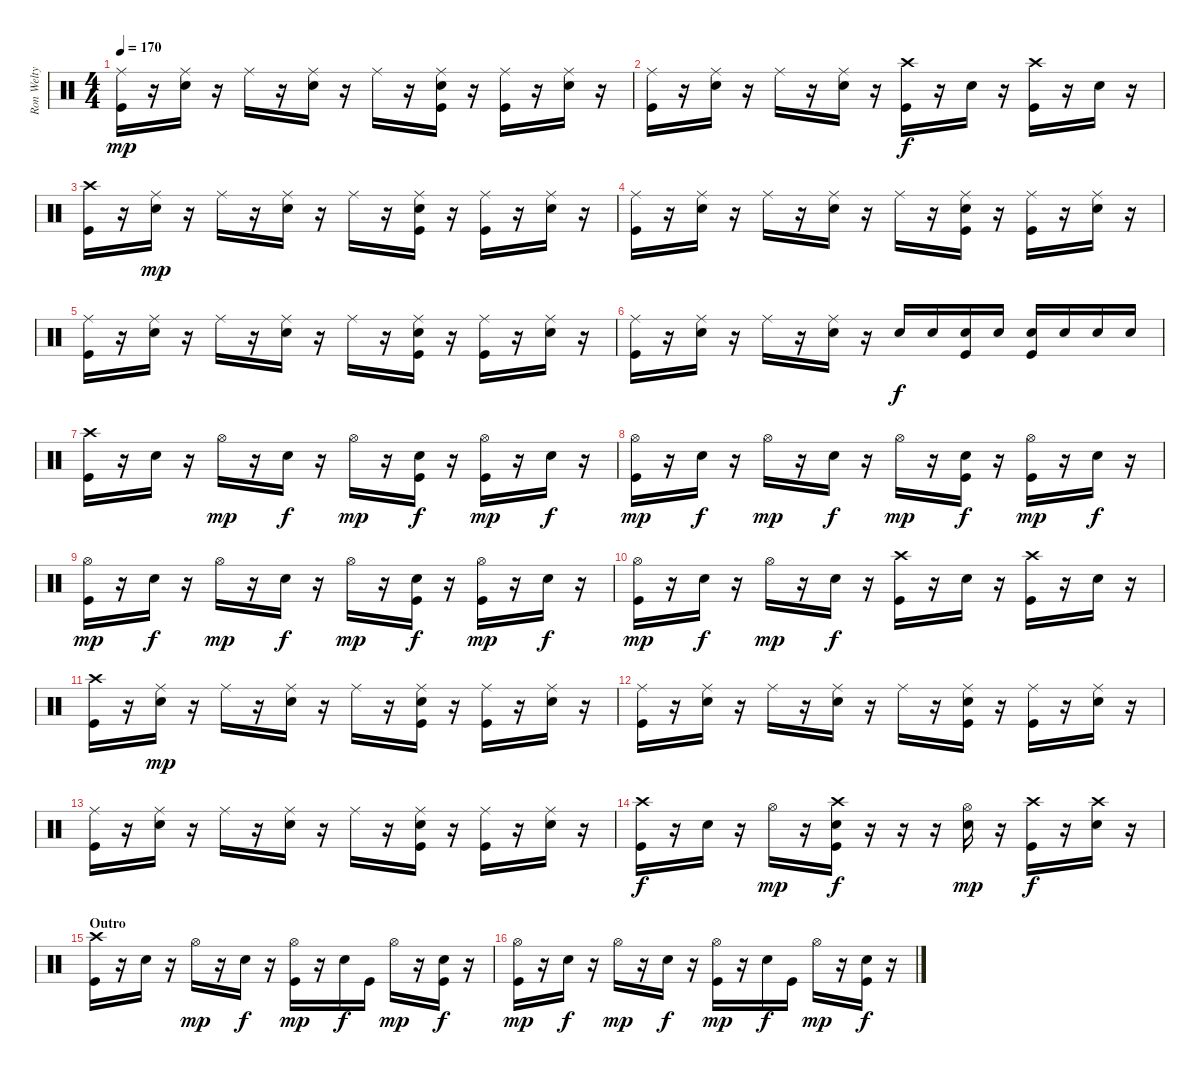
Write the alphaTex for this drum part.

\track ("Ron Welty" "Ron Welty") {instrument percussion}
\staff {score}
\articulation defaults
\ts (4 4)
\tempo 170
\clef neutral
\ks c
("Ride (middle)" "Kick (hit)").16{dy mp} r.16 ("Ride (middle)" "Snare (hit) 2").16 r.16 "Ride (middle)".16 r.16 ("Ride (middle)" "Snare (hit) 2").16 r.16 "Ride (middle)".16 r.16 ("Ride (middle)" "Snare (hit) 2" "Kick (hit)").16 r.16 ("Ride (middle)" "Kick (hit)").16 r.16 ("Ride (middle)" "Snare (hit) 2").16 r.16 |
("Ride (middle)" "Kick (hit)").16 r.16 ("Ride (middle)" "Snare (hit) 2").16 r.16 "Ride (middle)".16 r.16 ("Ride (middle)" "Snare (hit) 2").16 r.16 ("Crash high (hit)" "Kick (hit)").16{dy f} r.16 "Snare (hit) 2".16 r.16 ("Crash high (hit)" "Kick (hit)").16 r.16 "Snare (hit) 2".16 r.16 |
("Crash high (hit)" "Kick (hit)").16 r.16 ("Ride (middle)" "Snare (hit) 2").16{dy mp} r.16 "Ride (middle)".16 r.16 ("Ride (middle)" "Snare (hit) 2").16 r.16 "Ride (middle)".16 r.16 ("Ride (middle)" "Snare (hit) 2" "Kick (hit)").16 r.16 ("Ride (middle)" "Kick (hit)").16 r.16 ("Ride (middle)" "Snare (hit) 2").16 r.16 |
("Ride (middle)" "Kick (hit)").16 r.16 ("Ride (middle)" "Snare (hit) 2").16 r.16 "Ride (middle)".16 r.16 ("Ride (middle)" "Snare (hit) 2").16 r.16 "Ride (middle)".16 r.16 ("Ride (middle)" "Snare (hit) 2" "Kick (hit)").16 r.16 ("Ride (middle)" "Kick (hit)").16 r.16 ("Ride (middle)" "Snare (hit) 2").16 r.16 |
("Ride (middle)" "Kick (hit)").16 r.16 ("Ride (middle)" "Snare (hit) 2").16 r.16 "Ride (middle)".16 r.16 ("Ride (middle)" "Snare (hit) 2").16 r.16 "Ride (middle)".16 r.16 ("Ride (middle)" "Snare (hit) 2" "Kick (hit)").16 r.16 ("Ride (middle)" "Kick (hit)").16 r.16 ("Ride (middle)" "Snare (hit) 2").16 r.16 |
("Ride (middle)" "Kick (hit)").16 r.16 ("Ride (middle)" "Snare (hit) 2").16 r.16 "Ride (middle)".16 r.16 ("Ride (middle)" "Snare (hit) 2").16 r.16 "Snare (hit) 2".16{dy f} "Snare (hit) 2".16 ("Snare (hit) 2" "Kick (hit)").16 "Snare (hit) 2".16 ("Snare (hit) 2" "Kick (hit)").16 "Snare (hit) 2".16 "Snare (hit) 2".16 "Snare (hit) 2".16 |
("Crash high (hit)" "Kick (hit)").16 r.16 "Snare (hit) 2".16 r.16 "Hi-Hat (open)".16{dy mp} r.16 "Snare (hit) 2".16{dy f} r.16 "Hi-Hat (open)".16{dy mp} r.16 ("Snare (hit) 2" "Kick (hit)").16{dy f} r.16 ("Hi-Hat (open)" "Kick (hit)").16{dy mp} r.16 "Snare (hit) 2".16{dy f} r.16 |
("Hi-Hat (open)" "Kick (hit)").16{dy mp} r.16 "Snare (hit) 2".16{dy f} r.16 "Hi-Hat (open)".16{dy mp} r.16 "Snare (hit) 2".16{dy f} r.16 "Hi-Hat (open)".16{dy mp} r.16 ("Snare (hit) 2" "Kick (hit)").16{dy f} r.16 ("Hi-Hat (open)" "Kick (hit)").16{dy mp} r.16 "Snare (hit) 2".16{dy f} r.16 |
("Hi-Hat (open)" "Kick (hit)").16{dy mp} r.16 "Snare (hit) 2".16{dy f} r.16 "Hi-Hat (open)".16{dy mp} r.16 "Snare (hit) 2".16{dy f} r.16 "Hi-Hat (open)".16{dy mp} r.16 ("Snare (hit) 2" "Kick (hit)").16{dy f} r.16 ("Hi-Hat (open)" "Kick (hit)").16{dy mp} r.16 "Snare (hit) 2".16{dy f} r.16 |
("Hi-Hat (open)" "Kick (hit)").16{dy mp} r.16 "Snare (hit) 2".16{dy f} r.16 "Hi-Hat (open)".16{dy mp} r.16 "Snare (hit) 2".16{dy f} r.16 ("Crash high (hit)" "Kick (hit)").16 r.16 "Snare (hit) 2".16 r.16 ("Crash high (hit)" "Kick (hit)").16 r.16 "Snare (hit) 2".16 r.16 |
("Crash high (hit)" "Kick (hit)").16 r.16 ("Ride (middle)" "Snare (hit) 2").16{dy mp} r.16 "Ride (middle)".16 r.16 ("Ride (middle)" "Snare (hit) 2").16 r.16 "Ride (middle)".16 r.16 ("Ride (middle)" "Snare (hit) 2" "Kick (hit)").16 r.16 ("Ride (middle)" "Kick (hit)").16 r.16 ("Ride (middle)" "Snare (hit) 2").16 r.16 |
("Ride (middle)" "Kick (hit)").16 r.16 ("Ride (middle)" "Snare (hit) 2").16 r.16 "Ride (middle)".16 r.16 ("Ride (middle)" "Snare (hit) 2").16 r.16 "Ride (middle)".16 r.16 ("Ride (middle)" "Snare (hit) 2" "Kick (hit)").16 r.16 ("Ride (middle)" "Kick (hit)").16 r.16 ("Ride (middle)" "Snare (hit) 2").16 r.16 |
("Ride (middle)" "Kick (hit)").16 r.16 ("Ride (middle)" "Snare (hit) 2").16 r.16 "Ride (middle)".16 r.16 ("Ride (middle)" "Snare (hit) 2").16 r.16 "Ride (middle)".16 r.16 ("Ride (middle)" "Snare (hit) 2" "Kick (hit)").16 r.16 ("Ride (middle)" "Kick (hit)").16 r.16 ("Ride (middle)" "Snare (hit) 2").16 r.16 |
("Crash high (hit)" "Kick (hit)").16{dy f} r.16 "Snare (hit) 2".16 r.16 "Hi-Hat (open)".16{dy mp} r.16 ("Crash high (hit)" "Snare (hit) 2" "Kick (hit)").16{dy f} r.16 r.16 r.16 ("Hi-Hat (open)" "Snare (hit) 2").16{dy mp} r.16 ("Crash high (hit)" "Kick (hit)").16{dy f} r.16 ("Crash high (hit)" "Snare (hit) 2").16 r.16 |
\section ("" "Outro")
("Crash high (hit)" "Kick (hit)").16 r.16 "Snare (hit) 2".16 r.16 "Hi-Hat (open)".16{dy mp} r.16 "Snare (hit) 2".16{dy f} r.16 ("Hi-Hat (open)" "Kick (hit)").16{dy mp} r.16 "Snare (hit) 2".16{dy f} "Kick (hit)".16 "Hi-Hat (open)".16{dy mp} r.16 ("Snare (hit) 2" "Kick (hit)").16{dy f} r.16 |
("Hi-Hat (open)" "Kick (hit)").16{dy mp} r.16 "Snare (hit) 2".16{dy f} r.16 "Hi-Hat (open)".16{dy mp} r.16 "Snare (hit) 2".16{dy f} r.16 ("Hi-Hat (open)" "Kick (hit)").16{dy mp} r.16 "Snare (hit) 2".16{dy f} "Kick (hit)".16 "Hi-Hat (open)".16{dy mp} r.16 ("Snare (hit) 2" "Kick (hit)").16{dy f} r.16
